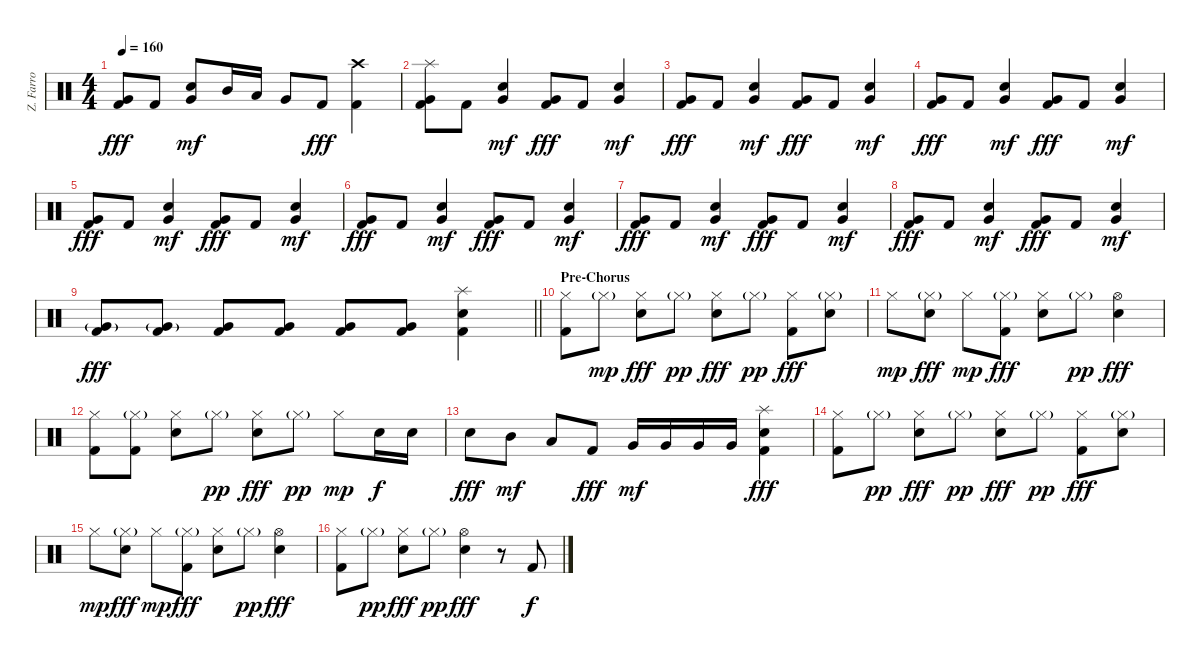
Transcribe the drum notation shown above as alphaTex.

\track ("Z. Farro" "Z. Farro") {instrument percussion}
\staff {score}
\articulation defaults
\ts (4 4)
\tempo 160
\clef neutral
\ks c
("Very Low Tom (hit)" "Kick (hit) 2").8{dy fff} "Kick (hit) 2".8 ("Electric Snare (hit)" "Very Low Tom (hit)").8{dy mf} "Mid Tom (hit)".16 "Low Tom (hit)".16 "Very Low Tom (hit)".8 "Kick (hit) 2".8{dy fff} ("Crash high (hit)" "Kick (hit) 2").4 |
("Splash (hit)" "Very Low Tom (hit)" "Kick (hit) 2").8 "Kick (hit) 2".8 ("Electric Snare (hit)" "Very Low Tom (hit)").4{dy mf} ("Very Low Tom (hit)" "Kick (hit) 2").8{dy fff} "Kick (hit) 2".8 ("Electric Snare (hit)" "Very Low Tom (hit)").4{dy mf} |
("Very Low Tom (hit)" "Kick (hit) 2").8{dy fff} "Kick (hit) 2".8 ("Electric Snare (hit)" "Very Low Tom (hit)").4{dy mf} ("Very Low Tom (hit)" "Kick (hit) 2").8{dy fff} "Kick (hit) 2".8 ("Electric Snare (hit)" "Very Low Tom (hit)").4{dy mf} |
("Very Low Tom (hit)" "Kick (hit) 2").8{dy fff} "Kick (hit) 2".8 ("Electric Snare (hit)" "Very Low Tom (hit)").4{dy mf} ("Very Low Tom (hit)" "Kick (hit) 2").8{dy fff} "Kick (hit) 2".8 ("Electric Snare (hit)" "Very Low Tom (hit)").4{dy mf} |
("Very Low Tom (hit)" "Kick (hit) 2").8{dy fff} "Kick (hit) 2".8 ("Electric Snare (hit)" "Very Low Tom (hit)").4{dy mf} ("Very Low Tom (hit)" "Kick (hit) 2").8{dy fff} "Kick (hit) 2".8 ("Electric Snare (hit)" "Very Low Tom (hit)").4{dy mf} |
("Very Low Tom (hit)" "Kick (hit) 2").8{dy fff} "Kick (hit) 2".8 ("Electric Snare (hit)" "Very Low Tom (hit)").4{dy mf} ("Very Low Tom (hit)" "Kick (hit) 2").8{dy fff} "Kick (hit) 2".8 ("Electric Snare (hit)" "Very Low Tom (hit)").4{dy mf} |
("Very Low Tom (hit)" "Kick (hit) 2").8{dy fff} "Kick (hit) 2".8 ("Electric Snare (hit)" "Very Low Tom (hit)").4{dy mf} ("Very Low Tom (hit)" "Kick (hit) 2").8{dy fff} "Kick (hit) 2".8 ("Electric Snare (hit)" "Very Low Tom (hit)").4{dy mf} |
("Very Low Tom (hit)" "Kick (hit) 2").8{dy fff} "Kick (hit) 2".8 ("Electric Snare (hit)" "Very Low Tom (hit)").4{dy mf} ("Very Low Tom (hit)" "Kick (hit) 2").8{dy fff} "Kick (hit) 2".8 ("Electric Snare (hit)" "Very Low Tom (hit)").4{dy mf} |
\barLineRight lightlight
("Very Low Tom (hit)"{g} "Kick (hit) 2").8{dy fff} ("Very Low Tom (hit)"{g} "Kick (hit) 2").8 ("Very Low Tom (hit)" "Kick (hit) 2").8 ("Very Low Tom (hit)" "Kick (hit) 2").8 ("Very Low Tom (hit)" "Kick (hit) 2").8 ("Very Low Tom (hit)" "Kick (hit) 2").8 ("Splash (hit)" "Electric Snare (hit)" "Kick (hit) 2").4 |
\section ("" "Pre-Chorus")
("Hi-Hat (closed)" "Kick (hit) 2").8 "Hi-Hat (closed)"{g}.8{dy mp} ("Hi-Hat (closed)" "Electric Snare (hit)").8{dy fff} "Hi-Hat (closed)"{g}.8{dy pp} ("Hi-Hat (closed)" "Electric Snare (hit)").8{dy fff} "Hi-Hat (closed)"{g}.8{dy pp} ("Hi-Hat (closed)" "Kick (hit) 2").8{dy fff} ("Hi-Hat (closed)"{g} "Electric Snare (hit)").8 |
"Hi-Hat (closed)".8{dy mp} ("Hi-Hat (closed)"{g} "Electric Snare (hit)").8{dy fff} "Hi-Hat (closed)".8{dy mp} ("Hi-Hat (closed)"{g} "Kick (hit) 2").8{dy fff} ("Hi-Hat (closed)" "Electric Snare (hit)").8 "Hi-Hat (closed)"{g}.8{dy pp} ("Hi-Hat (open)" "Electric Snare (hit)").4{dy fff} |
("Hi-Hat (closed)" "Kick (hit) 2").8 ("Hi-Hat (closed)"{g} "Kick (hit) 2").8 ("Hi-Hat (closed)" "Electric Snare (hit)").8 "Hi-Hat (closed)"{g}.8{dy pp} ("Hi-Hat (closed)" "Electric Snare (hit)").8{dy fff} "Hi-Hat (closed)"{g}.8{dy pp} "Hi-Hat (closed)".8{dy mp} "Electric Snare (hit)".16{dy f} "Electric Snare (hit)".16 |
"Electric Snare (hit)".8{dy fff} "Mid Tom (hit)".8{dy mf} "Low Tom (hit)".8 "Kick (hit) 2".8{dy fff} "Very Low Tom (hit)".16{dy mf} "Very Low Tom (hit)".16 "Very Low Tom (hit)".16 "Very Low Tom (hit)".16 ("Splash (hit)" "Electric Snare (hit)" "Kick (hit) 2").4{dy fff} |
("Hi-Hat (closed)" "Kick (hit) 2").8 "Hi-Hat (closed)"{g}.8{dy pp} ("Hi-Hat (closed)" "Electric Snare (hit)").8{dy fff} "Hi-Hat (closed)"{g}.8{dy pp} ("Hi-Hat (closed)" "Electric Snare (hit)").8{dy fff} "Hi-Hat (closed)"{g}.8{dy pp} ("Hi-Hat (closed)" "Kick (hit) 2").8{dy fff} ("Hi-Hat (closed)"{g} "Electric Snare (hit)").8 |
"Hi-Hat (closed)".8{dy mp} ("Hi-Hat (closed)"{g} "Electric Snare (hit)").8{dy fff} "Hi-Hat (closed)".8{dy mp} ("Hi-Hat (closed)"{g} "Kick (hit) 2").8{dy fff} ("Hi-Hat (closed)" "Electric Snare (hit)").8 "Hi-Hat (closed)"{g}.8{dy pp} ("Hi-Hat (open)" "Electric Snare (hit)").4{dy fff} |
("Hi-Hat (closed)" "Kick (hit) 2").8 "Hi-Hat (closed)"{g}.8{dy pp} ("Hi-Hat (closed)" "Electric Snare (hit)").8{dy fff} "Hi-Hat (closed)"{g}.8{dy pp} ("Hi-Hat (open)" "Electric Snare (hit)").4{dy fff} r.8 "Kick (hit) 2".8{dy f}
